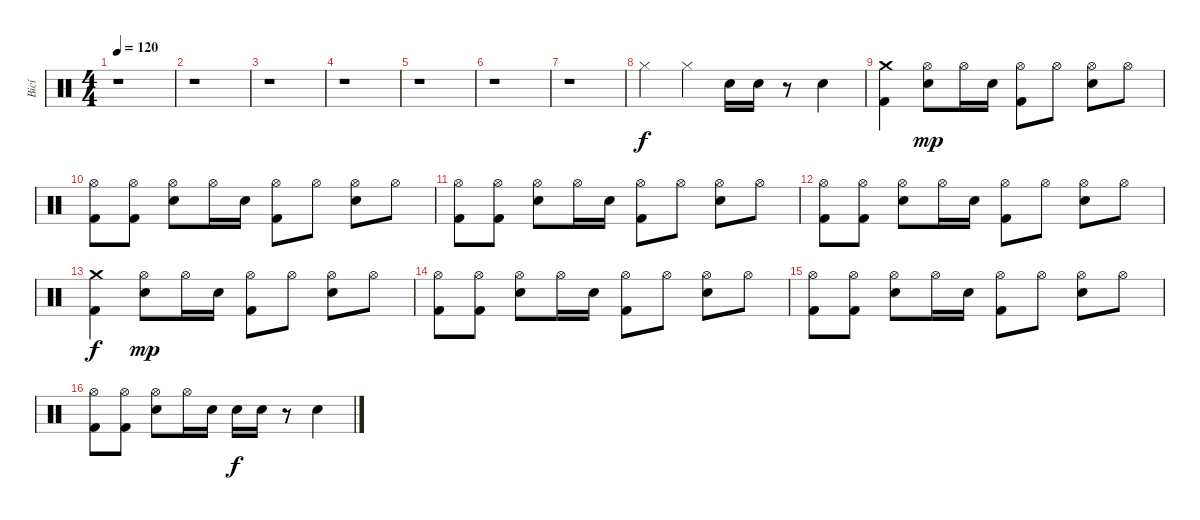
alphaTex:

\track ("Bicí" "Bicí") {instrument percussion}
\staff {score}
\articulation defaults
\ts (4 4)
\tempo 120
\clef neutral
\ks c
r.1{dy f} |
r.1 |
r.1 |
r.1 |
r.1 |
r.1 |
r.1 |
"Hi-Hat (closed)".4 "Hi-Hat (closed)".4 "Electric Snare (hit)".16 "Electric Snare (hit)".16 r.8 "Electric Snare (hit)".4 |
("Crash medium (hit)" "Kick (hit) 2").4 ("Hi-Hat (open)" "Electric Snare (hit)").8{dy mp} "Hi-Hat (open)".16 "Electric Snare (hit)".16 ("Hi-Hat (open)" "Kick (hit) 2").8 "Hi-Hat (open)".8 ("Hi-Hat (open)" "Electric Snare (hit)").8 "Hi-Hat (open)".8 |
("Hi-Hat (open)" "Kick (hit) 2").8 ("Hi-Hat (open)" "Kick (hit) 2").8 ("Hi-Hat (open)" "Electric Snare (hit)").8 "Hi-Hat (open)".16 "Electric Snare (hit)".16 ("Hi-Hat (open)" "Kick (hit) 2").8 "Hi-Hat (open)".8 ("Hi-Hat (open)" "Electric Snare (hit)").8 "Hi-Hat (open)".8 |
("Hi-Hat (open)" "Kick (hit) 2").8 ("Hi-Hat (open)" "Kick (hit) 2").8 ("Hi-Hat (open)" "Electric Snare (hit)").8 "Hi-Hat (open)".16 "Electric Snare (hit)".16 ("Hi-Hat (open)" "Kick (hit) 2").8 "Hi-Hat (open)".8 ("Hi-Hat (open)" "Electric Snare (hit)").8 "Hi-Hat (open)".8 |
("Hi-Hat (open)" "Kick (hit) 2").8 ("Hi-Hat (open)" "Kick (hit) 2").8 ("Hi-Hat (open)" "Electric Snare (hit)").8 "Hi-Hat (open)".16 "Electric Snare (hit)".16 ("Hi-Hat (open)" "Kick (hit) 2").8 "Hi-Hat (open)".8 ("Hi-Hat (open)" "Electric Snare (hit)").8 "Hi-Hat (open)".8 |
("Crash medium (hit)" "Kick (hit) 2").4{dy f} ("Hi-Hat (open)" "Electric Snare (hit)").8{dy mp} "Hi-Hat (open)".16 "Electric Snare (hit)".16 ("Hi-Hat (open)" "Kick (hit) 2").8 "Hi-Hat (open)".8 ("Hi-Hat (open)" "Electric Snare (hit)").8 "Hi-Hat (open)".8 |
("Hi-Hat (open)" "Kick (hit) 2").8 ("Hi-Hat (open)" "Kick (hit) 2").8 ("Hi-Hat (open)" "Electric Snare (hit)").8 "Hi-Hat (open)".16 "Electric Snare (hit)".16 ("Hi-Hat (open)" "Kick (hit) 2").8 "Hi-Hat (open)".8 ("Hi-Hat (open)" "Electric Snare (hit)").8 "Hi-Hat (open)".8 |
("Hi-Hat (open)" "Kick (hit) 2").8 ("Hi-Hat (open)" "Kick (hit) 2").8 ("Hi-Hat (open)" "Electric Snare (hit)").8 "Hi-Hat (open)".16 "Electric Snare (hit)".16 ("Hi-Hat (open)" "Kick (hit) 2").8 "Hi-Hat (open)".8 ("Hi-Hat (open)" "Electric Snare (hit)").8 "Hi-Hat (open)".8 |
("Hi-Hat (open)" "Kick (hit) 2").8 ("Hi-Hat (open)" "Kick (hit) 2").8 ("Hi-Hat (open)" "Electric Snare (hit)").8 "Hi-Hat (open)".16 "Electric Snare (hit)".16 "Electric Snare (hit)".16{dy f} "Electric Snare (hit)".16 r.8 "Electric Snare (hit)".4
